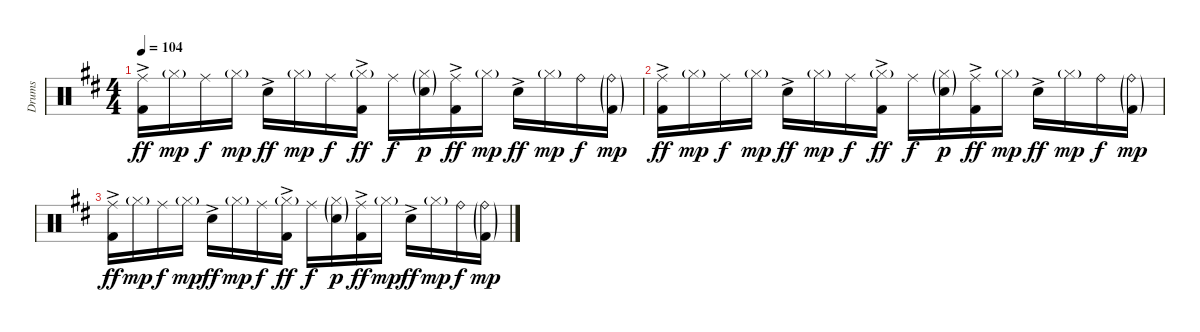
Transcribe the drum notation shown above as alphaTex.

\track ("Drums" "Drums") {instrument percussion}
\staff {score}
\articulation defaults
\ts (4 4)
\tempo 104
\clef neutral
\ks d
("Ride (middle)" "Kick (hit) 2"{ac}).16{dy ff} "Hi-Hat (closed)"{g}.16{dy mp} "Ride (middle)".16{dy f} "Hi-Hat (closed)"{g}.16{dy mp} "Snare (hit) 2"{ac}.16{dy ff} "Hi-Hat (closed)"{g}.16{dy mp} "Ride (middle)".16{dy f} ("Hi-Hat (closed)"{g} "Kick (hit) 2"{ac}).16{dy ff} "Ride (middle)".16{dy f} ("Hi-Hat (closed)"{g} "Snare (hit) 2"{g}).16{dy p} ("Ride (middle)" "Kick (hit) 2"{ac}).16{dy ff} "Hi-Hat (closed)"{g}.16{dy mp} "Snare (hit) 2"{ac}.16{dy ff} "Hi-Hat (closed)"{g}.16{dy mp} "Ride (bell)".16{dy f} ("Ride (bell)"{g} "Kick (hit) 2"{g}).16{dy mp} |
("Ride (middle)" "Kick (hit) 2"{ac}).16{dy ff} "Hi-Hat (closed)"{g}.16{dy mp} "Ride (middle)".16{dy f} "Hi-Hat (closed)"{g}.16{dy mp} "Snare (hit) 2"{ac}.16{dy ff} "Hi-Hat (closed)"{g}.16{dy mp} "Ride (middle)".16{dy f} ("Hi-Hat (closed)"{g} "Kick (hit) 2"{ac}).16{dy ff} "Ride (middle)".16{dy f} ("Hi-Hat (closed)"{g} "Snare (hit) 2"{g}).16{dy p} ("Ride (middle)" "Kick (hit) 2"{ac}).16{dy ff} "Hi-Hat (closed)"{g}.16{dy mp} "Snare (hit) 2"{ac}.16{dy ff} "Hi-Hat (closed)"{g}.16{dy mp} "Ride (bell)".16{dy f} ("Ride (bell)"{g} "Kick (hit) 2"{g}).16{dy mp} |
("Ride (middle)" "Kick (hit) 2"{ac}).16{dy ff} "Hi-Hat (closed)"{g}.16{dy mp} "Ride (middle)".16{dy f} "Hi-Hat (closed)"{g}.16{dy mp} "Snare (hit) 2"{ac}.16{dy ff} "Hi-Hat (closed)"{g}.16{dy mp} "Ride (middle)".16{dy f} ("Hi-Hat (closed)"{g} "Kick (hit) 2"{ac}).16{dy ff} "Ride (middle)".16{dy f} ("Hi-Hat (closed)"{g} "Snare (hit) 2"{g}).16{dy p} ("Ride (middle)" "Kick (hit) 2"{ac}).16{dy ff} "Hi-Hat (closed)"{g}.16{dy mp} "Snare (hit) 2"{ac}.16{dy ff} "Hi-Hat (closed)"{g}.16{dy mp} "Ride (bell)".16{dy f} ("Ride (bell)"{g} "Kick (hit) 2"{g}).16{dy mp}
